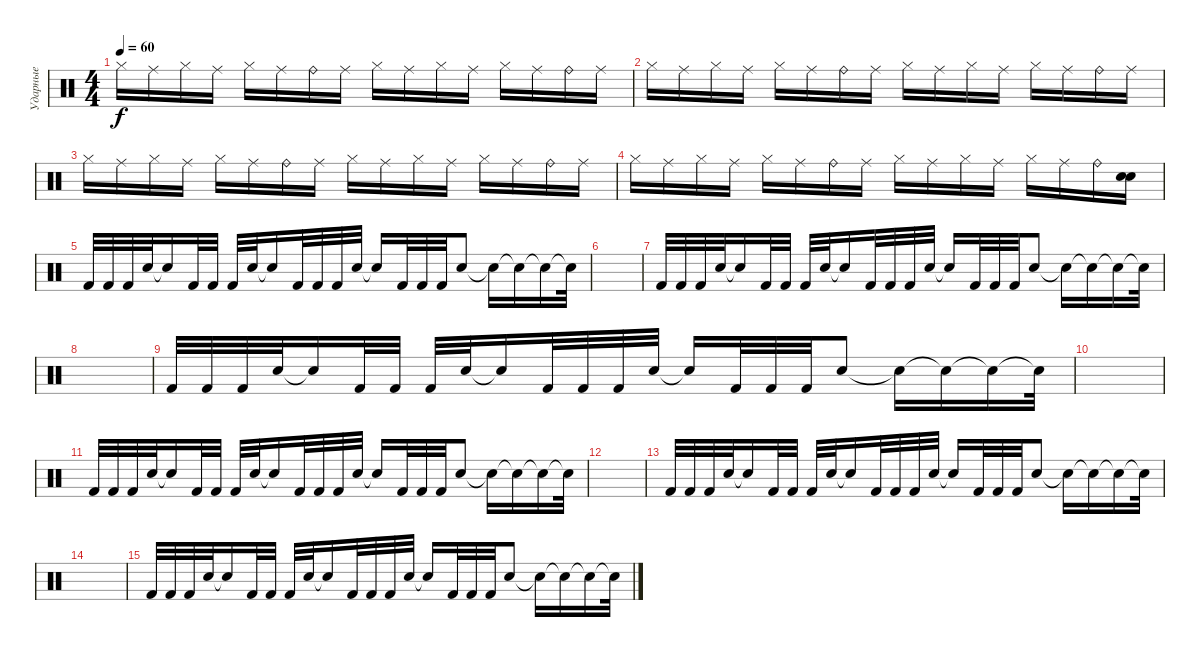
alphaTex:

\track ("Ударные" "Ударные") {instrument percussion}
\staff {score}
\articulation defaults
\ts (4 4)
\tempo 60
\clef neutral
\ks c "Hi-Hat (closed)".16{dy f} "Ride (middle)".16 "Hi-Hat (closed)".16 "Ride (middle)".16 "Hi-Hat (closed)".16 "Ride (middle)".16 "Ride (bell)".16 "Ride (middle)".16 "Hi-Hat (closed)".16 "Ride (middle)".16 "Hi-Hat (closed)".16 "Ride (middle)".16 "Hi-Hat (closed)".16 "Ride (middle)".16 "Ride (bell)".16 "Ride (middle)".16
|
"Hi-Hat (closed)".16 "Ride (middle)".16 "Hi-Hat (closed)".16 "Ride (middle)".16 "Hi-Hat (closed)".16 "Ride (middle)".16 "Ride (bell)".16 "Ride (middle)".16 "Hi-Hat (closed)".16 "Ride (middle)".16 "Hi-Hat (closed)".16 "Ride (middle)".16 "Hi-Hat (closed)".16 "Ride (middle)".16 "Ride (bell)".16 "Ride (middle)".16 |
"Hi-Hat (closed)".16 "Ride (middle)".16 "Hi-Hat (closed)".16 "Ride (middle)".16 "Hi-Hat (closed)".16 "Ride (middle)".16 "Ride (bell)".16 "Ride (middle)".16 "Hi-Hat (closed)".16 "Ride (middle)".16 "Hi-Hat (closed)".16 "Ride (middle)".16 "Hi-Hat (closed)".16 "Ride (middle)".16 "Ride (bell)".16 "Ride (middle)".16 |
"Hi-Hat (closed)".16 "Ride (middle)".16 "Hi-Hat (closed)".16 "Ride (middle)".16 "Hi-Hat (closed)".16 "Ride (middle)".16 "Ride (bell)".16 "Ride (middle)".16 "Hi-Hat (closed)".16 "Ride (middle)".16 "Hi-Hat (closed)".16 "Ride (middle)".16 "Hi-Hat (closed)".16 "Ride (middle)".16 "Ride (bell)".16 ("Electric Snare (hit)" "Electric Snare (hit)").16 |
"Kick (hit) 2".32 "Kick (hit) 2".32 "Kick (hit) 2".32 "Electric Snare (hit)".32 "Snare (hit)"{t}.16 "Kick (hit) 2".32 "Kick (hit) 2".32 "Kick (hit) 2".32 "Electric Snare (hit)".32 "Snare (hit)"{t}.16 "Kick (hit) 2".32 "Kick (hit) 2".32 "Kick (hit) 2".32 "Electric Snare (hit)".32 "Snare (hit)"{t}.16 "Kick (hit) 2".32 "Kick (hit) 2".32 "Kick (hit) 2".32 "Electric Snare (hit)".8 "Snare (hit)"{t}.16 "Snare (hit)"{t}.16 "Snare (hit)"{t}.16 "Snare (hit)"{t}.32 |
|
"Kick (hit) 2".32 "Kick (hit) 2".32 "Kick (hit) 2".32 "Electric Snare (hit)".32 "Snare (hit)"{t}.16 "Kick (hit) 2".32 "Kick (hit) 2".32 "Kick (hit) 2".32 "Electric Snare (hit)".32 "Snare (hit)"{t}.16 "Kick (hit) 2".32 "Kick (hit) 2".32 "Kick (hit) 2".32 "Electric Snare (hit)".32 "Snare (hit)"{t}.16 "Kick (hit) 2".32 "Kick (hit) 2".32 "Kick (hit) 2".32 "Electric Snare (hit)".8 "Snare (hit)"{t}.16 "Snare (hit)"{t}.16 "Snare (hit)"{t}.16 "Snare (hit)"{t}.32 |
|
"Kick (hit) 2".32 "Kick (hit) 2".32 "Kick (hit) 2".32 "Electric Snare (hit)".32 "Snare (hit)"{t}.16 "Kick (hit) 2".32 "Kick (hit) 2".32 "Kick (hit) 2".32 "Electric Snare (hit)".32 "Snare (hit)"{t}.16 "Kick (hit) 2".32 "Kick (hit) 2".32 "Kick (hit) 2".32 "Electric Snare (hit)".32 "Snare (hit)"{t}.16 "Kick (hit) 2".32 "Kick (hit) 2".32 "Kick (hit) 2".32 "Electric Snare (hit)".8 "Snare (hit)"{t}.16 "Snare (hit)"{t}.16 "Snare (hit)"{t}.16 "Snare (hit)"{t}.32 |
|
"Kick (hit) 2".32 "Kick (hit) 2".32 "Kick (hit) 2".32 "Electric Snare (hit)".32 "Snare (hit)"{t}.16 "Kick (hit) 2".32 "Kick (hit) 2".32 "Kick (hit) 2".32 "Electric Snare (hit)".32 "Snare (hit)"{t}.16 "Kick (hit) 2".32 "Kick (hit) 2".32 "Kick (hit) 2".32 "Electric Snare (hit)".32 "Snare (hit)"{t}.16 "Kick (hit) 2".32 "Kick (hit) 2".32 "Kick (hit) 2".32 "Electric Snare (hit)".8 "Snare (hit)"{t}.16 "Snare (hit)"{t}.16 "Snare (hit)"{t}.16 "Snare (hit)"{t}.32 |
|
"Kick (hit) 2".32 "Kick (hit) 2".32 "Kick (hit) 2".32 "Electric Snare (hit)".32 "Snare (hit)"{t}.16 "Kick (hit) 2".32 "Kick (hit) 2".32 "Kick (hit) 2".32 "Electric Snare (hit)".32 "Snare (hit)"{t}.16 "Kick (hit) 2".32 "Kick (hit) 2".32 "Kick (hit) 2".32 "Electric Snare (hit)".32 "Snare (hit)"{t}.16 "Kick (hit) 2".32 "Kick (hit) 2".32 "Kick (hit) 2".32 "Electric Snare (hit)".8 "Snare (hit)"{t}.16 "Snare (hit)"{t}.16 "Snare (hit)"{t}.16 "Snare (hit)"{t}.32 |
|
"Kick (hit) 2".32 "Kick (hit) 2".32 "Kick (hit) 2".32 "Electric Snare (hit)".32 "Snare (hit)"{t}.16 "Kick (hit) 2".32 "Kick (hit) 2".32 "Kick (hit) 2".32 "Electric Snare (hit)".32 "Snare (hit)"{t}.16 "Kick (hit) 2".32 "Kick (hit) 2".32 "Kick (hit) 2".32 "Electric Snare (hit)".32 "Snare (hit)"{t}.16 "Kick (hit) 2".32 "Kick (hit) 2".32 "Kick (hit) 2".32 "Electric Snare (hit)".8 "Snare (hit)"{t}.16 "Snare (hit)"{t}.16 "Snare (hit)"{t}.16 "Snare (hit)"{t}.32
